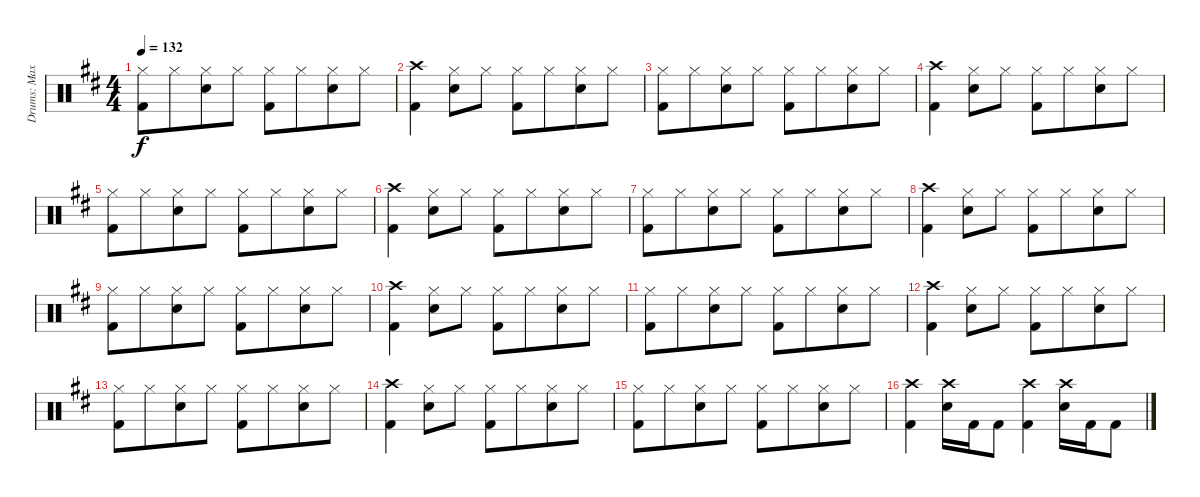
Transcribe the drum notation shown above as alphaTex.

\track ("Drums: Max" "Drums: Max") {instrument percussion}
\staff {score}
\articulation defaults
\ts (4 4)
\tempo 132
\clef neutral
\ks d
("Hi-Hat (closed)" "Kick (hit) 2").8{dy f} "Hi-Hat (closed)".8{beam merge} ("Hi-Hat (closed)" "Electric Snare (hit)").8 "Hi-Hat (closed)".8 ("Hi-Hat (closed)" "Kick (hit) 2").8 "Hi-Hat (closed)".8{beam merge} ("Hi-Hat (closed)" "Electric Snare (hit)").8 "Hi-Hat (closed)".8 |
("Crash high (hit)" "Kick (hit) 2").4 ("Hi-Hat (closed)" "Electric Snare (hit)").8 "Hi-Hat (closed)".8 ("Hi-Hat (closed)" "Kick (hit) 2").8 "Hi-Hat (closed)".8{beam merge} ("Hi-Hat (closed)" "Electric Snare (hit)").8 "Hi-Hat (closed)".8 |
("Hi-Hat (closed)" "Kick (hit) 2").8 "Hi-Hat (closed)".8{beam merge} ("Hi-Hat (closed)" "Electric Snare (hit)").8 "Hi-Hat (closed)".8 ("Hi-Hat (closed)" "Kick (hit) 2").8 "Hi-Hat (closed)".8{beam merge} ("Hi-Hat (closed)" "Electric Snare (hit)").8 "Hi-Hat (closed)".8 |
("Crash high (hit)" "Kick (hit) 2").4 ("Hi-Hat (closed)" "Electric Snare (hit)").8 "Hi-Hat (closed)".8 ("Hi-Hat (closed)" "Kick (hit) 2").8 "Hi-Hat (closed)".8{beam merge} ("Hi-Hat (closed)" "Electric Snare (hit)").8 "Hi-Hat (closed)".8 |
("Hi-Hat (closed)" "Kick (hit) 2").8 "Hi-Hat (closed)".8{beam merge} ("Hi-Hat (closed)" "Electric Snare (hit)").8 "Hi-Hat (closed)".8 ("Hi-Hat (closed)" "Kick (hit) 2").8 "Hi-Hat (closed)".8{beam merge} ("Hi-Hat (closed)" "Electric Snare (hit)").8 "Hi-Hat (closed)".8 |
("Crash high (hit)" "Kick (hit) 2").4 ("Hi-Hat (closed)" "Electric Snare (hit)").8 "Hi-Hat (closed)".8 ("Hi-Hat (closed)" "Kick (hit) 2").8 "Hi-Hat (closed)".8{beam merge} ("Hi-Hat (closed)" "Electric Snare (hit)").8 "Hi-Hat (closed)".8 |
("Hi-Hat (closed)" "Kick (hit) 2").8 "Hi-Hat (closed)".8{beam merge} ("Hi-Hat (closed)" "Electric Snare (hit)").8 "Hi-Hat (closed)".8 ("Hi-Hat (closed)" "Kick (hit) 2").8 "Hi-Hat (closed)".8{beam merge} ("Hi-Hat (closed)" "Electric Snare (hit)").8 "Hi-Hat (closed)".8 |
("Crash high (hit)" "Kick (hit) 2").4 ("Hi-Hat (closed)" "Electric Snare (hit)").8 "Hi-Hat (closed)".8 ("Hi-Hat (closed)" "Kick (hit) 2").8 "Hi-Hat (closed)".8{beam merge} ("Hi-Hat (closed)" "Electric Snare (hit)").8 "Hi-Hat (closed)".8 |
("Hi-Hat (closed)" "Kick (hit) 2").8 "Hi-Hat (closed)".8{beam merge} ("Hi-Hat (closed)" "Electric Snare (hit)").8 "Hi-Hat (closed)".8 ("Hi-Hat (closed)" "Kick (hit) 2").8 "Hi-Hat (closed)".8{beam merge} ("Hi-Hat (closed)" "Electric Snare (hit)").8 "Hi-Hat (closed)".8 |
("Crash high (hit)" "Kick (hit) 2").4 ("Hi-Hat (closed)" "Electric Snare (hit)").8 "Hi-Hat (closed)".8 ("Hi-Hat (closed)" "Kick (hit) 2").8 "Hi-Hat (closed)".8{beam merge} ("Hi-Hat (closed)" "Electric Snare (hit)").8 "Hi-Hat (closed)".8 |
("Hi-Hat (closed)" "Kick (hit) 2").8 "Hi-Hat (closed)".8{beam merge} ("Hi-Hat (closed)" "Electric Snare (hit)").8 "Hi-Hat (closed)".8 ("Hi-Hat (closed)" "Kick (hit) 2").8 "Hi-Hat (closed)".8{beam merge} ("Hi-Hat (closed)" "Electric Snare (hit)").8 "Hi-Hat (closed)".8 |
("Crash high (hit)" "Kick (hit) 2").4 ("Hi-Hat (closed)" "Electric Snare (hit)").8 "Hi-Hat (closed)".8 ("Hi-Hat (closed)" "Kick (hit) 2").8 "Hi-Hat (closed)".8{beam merge} ("Hi-Hat (closed)" "Electric Snare (hit)").8 "Hi-Hat (closed)".8 |
("Hi-Hat (closed)" "Kick (hit) 2").8 "Hi-Hat (closed)".8{beam merge} ("Hi-Hat (closed)" "Electric Snare (hit)").8 "Hi-Hat (closed)".8 ("Hi-Hat (closed)" "Kick (hit) 2").8 "Hi-Hat (closed)".8{beam merge} ("Hi-Hat (closed)" "Electric Snare (hit)").8 "Hi-Hat (closed)".8 |
("Crash high (hit)" "Kick (hit) 2").4 ("Hi-Hat (closed)" "Electric Snare (hit)").8 "Hi-Hat (closed)".8 ("Hi-Hat (closed)" "Kick (hit) 2").8 "Hi-Hat (closed)".8{beam merge} ("Hi-Hat (closed)" "Electric Snare (hit)").8 "Hi-Hat (closed)".8 |
("Hi-Hat (closed)" "Kick (hit) 2").8 "Hi-Hat (closed)".8{beam merge} ("Hi-Hat (closed)" "Electric Snare (hit)").8 "Hi-Hat (closed)".8 ("Hi-Hat (closed)" "Kick (hit) 2").8 "Hi-Hat (closed)".8{beam merge} ("Hi-Hat (closed)" "Electric Snare (hit)").8 "Hi-Hat (closed)".8 |
("Crash high (hit)" "Kick (hit) 2").4 ("Crash high (hit)" "Electric Snare (hit)").16 "Kick (hit) 2".16 "Kick (hit) 2".8 ("Crash high (hit)" "Kick (hit) 2").4 ("Crash high (hit)" "Electric Snare (hit)").16 "Kick (hit) 2".16 "Kick (hit) 2".8
